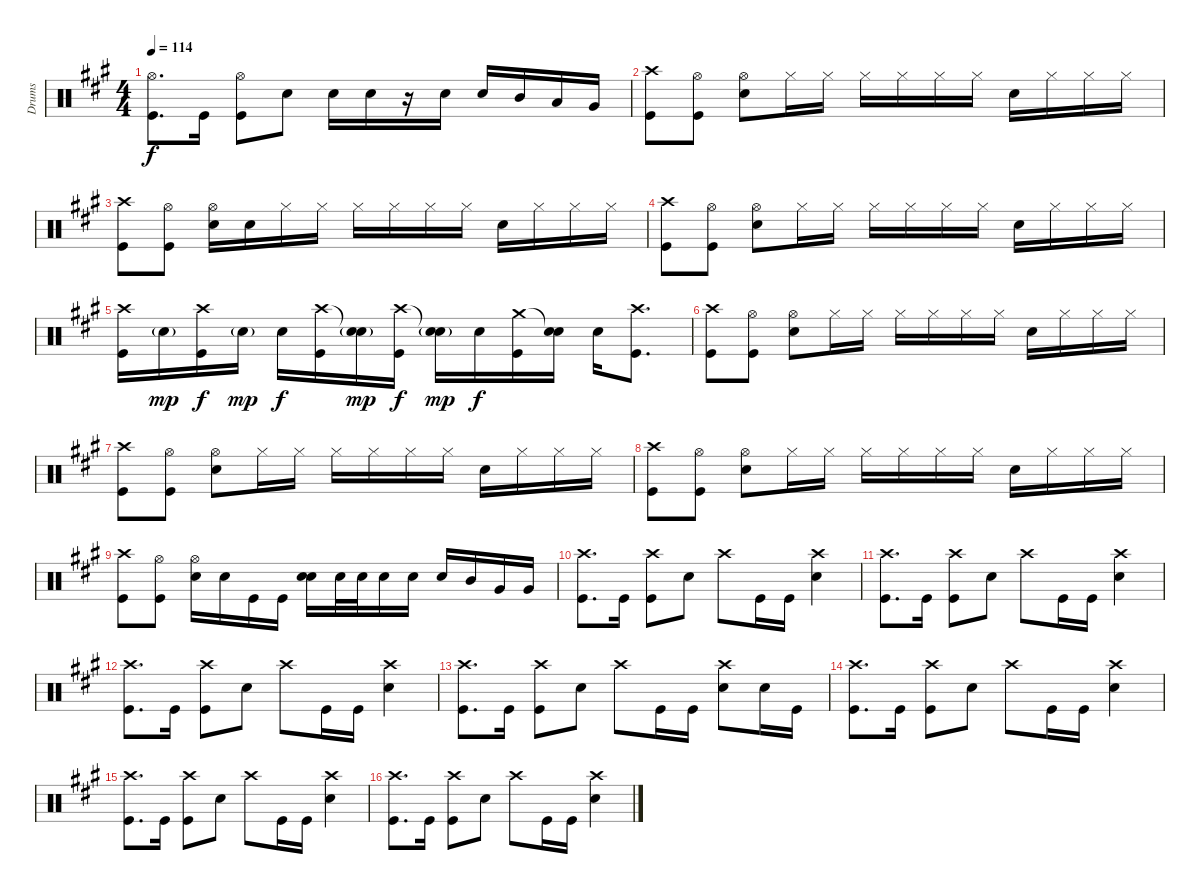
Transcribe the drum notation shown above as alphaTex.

\track ("Drums" "Drums") {instrument percussion}
\staff {score}
\articulation defaults
\ts (4 4)
\tempo 114
\clef neutral
\ks a
("Hi-Hat (open)" "Kick (hit)").8{d dy f} "Kick (hit)".16 ("Hi-Hat (open)" "Kick (hit)").8 "Electric Snare (hit)".8 "Electric Snare (hit)".16 "Electric Snare (hit)".16 r.16 "Electric Snare (hit)".16 "Electric Snare (hit)".16 "Mid Tom (hit)".16 "Low Tom (hit)".16 "Very Low Tom (hit)".16 |
("Crash high (hit)" "Kick (hit)").8 ("Hi-Hat (open)" "Kick (hit)").8 ("Hi-Hat (open)" "Electric Snare (hit)").8 "Hi-Hat (closed)".16 "Hi-Hat (closed)".16 "Hi-Hat (closed)".16 "Hi-Hat (closed)".16 "Hi-Hat (closed)".16 "Hi-Hat (closed)".16 "Electric Snare (hit)".16 "Hi-Hat (closed)".16 "Hi-Hat (closed)".16 "Hi-Hat (closed)".16 |
("Crash high (hit)" "Kick (hit)").8 ("Hi-Hat (open)" "Kick (hit)").8 ("Hi-Hat (open)" "Electric Snare (hit)").16 "Electric Snare (hit)".16 "Hi-Hat (closed)".16 "Hi-Hat (closed)".16 "Hi-Hat (closed)".16 "Hi-Hat (closed)".16 "Hi-Hat (closed)".16 "Hi-Hat (closed)".16 "Electric Snare (hit)".16 "Hi-Hat (closed)".16 "Hi-Hat (closed)".16 "Hi-Hat (closed)".16 |
("Crash high (hit)" "Kick (hit)").8 ("Hi-Hat (open)" "Kick (hit)").8 ("Hi-Hat (open)" "Electric Snare (hit)").8 "Hi-Hat (closed)".16 "Hi-Hat (closed)".16 "Hi-Hat (closed)".16 "Hi-Hat (closed)".16 "Hi-Hat (closed)".16 "Hi-Hat (closed)".16 "Electric Snare (hit)".16 "Hi-Hat (closed)".16 "Hi-Hat (closed)".16 "Hi-Hat (closed)".16 |
("Crash high (hit)" "Kick (hit)").16 "Electric Snare (hit)"{g}.16{dy mp} ("Crash high (hit)" "Kick (hit)").16{dy f} "Electric Snare (hit)"{g}.16{dy mp} "Electric Snare (hit)".16{dy f} ("Crash high (hit)" "Kick (hit)").16 ("Snare (hit)"{t} "Electric Snare (hit)"{g}).16{dy mp} ("Crash high (hit)" "Kick (hit)").16{dy f} ("Snare (hit)"{t} "Electric Snare (hit)"{g}).16{dy mp} "Electric Snare (hit)".16{dy f} ("Crash medium (hit)" "Kick (hit)").16 ("Snare (hit)"{t} "Electric Snare (hit)").16 "Electric Snare (hit)".16 ("Crash high (hit)" "Kick (hit)").8{d} |
("Crash high (hit)" "Kick (hit)").8 ("Hi-Hat (open)" "Kick (hit)").8 ("Hi-Hat (open)" "Electric Snare (hit)").8 "Hi-Hat (closed)".16 "Hi-Hat (closed)".16 "Hi-Hat (closed)".16 "Hi-Hat (closed)".16 "Hi-Hat (closed)".16 "Hi-Hat (closed)".16 "Electric Snare (hit)".16 "Hi-Hat (closed)".16 "Hi-Hat (closed)".16 "Hi-Hat (closed)".16 |
("Crash high (hit)" "Kick (hit)").8 ("Hi-Hat (open)" "Kick (hit)").8 ("Hi-Hat (open)" "Electric Snare (hit)").8 "Hi-Hat (closed)".16 "Hi-Hat (closed)".16 "Hi-Hat (closed)".16 "Hi-Hat (closed)".16 "Hi-Hat (closed)".16 "Hi-Hat (closed)".16 "Electric Snare (hit)".16 "Hi-Hat (closed)".16 "Hi-Hat (closed)".16 "Hi-Hat (closed)".16 |
("Crash high (hit)" "Kick (hit)").8 ("Hi-Hat (open)" "Kick (hit)").8 ("Hi-Hat (open)" "Electric Snare (hit)").8 "Hi-Hat (closed)".16 "Hi-Hat (closed)".16 "Hi-Hat (closed)".16 "Hi-Hat (closed)".16 "Hi-Hat (closed)".16 "Hi-Hat (closed)".16 "Electric Snare (hit)".16 "Hi-Hat (closed)".16 "Hi-Hat (closed)".16 "Hi-Hat (closed)".16 |
("Crash high (hit)" "Kick (hit)").8 ("Hi-Hat (open)" "Kick (hit)").8 ("Hi-Hat (open)" "Electric Snare (hit)").16 "Electric Snare (hit)".16 "Kick (hit)".16 "Kick (hit)".16 ("Electric Snare (hit)" "Electric Snare (hit)").16{bd 240} "Electric Snare (hit)".32 "Electric Snare (hit)".32 "Electric Snare (hit)".16 "Electric Snare (hit)".16 "Electric Snare (hit)".16 "Mid Tom (hit)".16 "Very Low Tom (hit)".16 "Very Low Tom (hit)".16 |
("Crash high (hit)" "Kick (hit)").8{d} "Kick (hit)".16 ("Crash high (hit)" "Kick (hit)").8 "Electric Snare (hit)".8 "Crash high (hit)".8 "Kick (hit)".16 "Kick (hit)".16 ("Crash high (hit)" "Electric Snare (hit)").4 |
("Crash high (hit)" "Kick (hit)").8{d} "Kick (hit)".16 ("Crash high (hit)" "Kick (hit)").8 "Electric Snare (hit)".8 "Crash high (hit)".8 "Kick (hit)".16 "Kick (hit)".16 ("Crash high (hit)" "Electric Snare (hit)").4 |
("Crash high (hit)" "Kick (hit)").8{d} "Kick (hit)".16 ("Crash high (hit)" "Kick (hit)").8 "Electric Snare (hit)".8 "Crash high (hit)".8 "Kick (hit)".16 "Kick (hit)".16 ("Crash high (hit)" "Electric Snare (hit)").4 |
("Crash high (hit)" "Kick (hit)").8{d} "Kick (hit)".16 ("Crash high (hit)" "Kick (hit)").8 "Electric Snare (hit)".8 "Crash high (hit)".8 "Kick (hit)".16 "Kick (hit)".16 ("Crash high (hit)" "Electric Snare (hit)").8 "Electric Snare (hit)".16 "Kick (hit)".16 |
("Crash high (hit)" "Kick (hit)").8{d} "Kick (hit)".16 ("Crash high (hit)" "Kick (hit)").8 "Electric Snare (hit)".8 "Crash high (hit)".8 "Kick (hit)".16 "Kick (hit)".16 ("Crash high (hit)" "Electric Snare (hit)").4 |
("Crash high (hit)" "Kick (hit)").8{d} "Kick (hit)".16 ("Crash high (hit)" "Kick (hit)").8 "Electric Snare (hit)".8 "Crash high (hit)".8 "Kick (hit)".16 "Kick (hit)".16 ("Crash high (hit)" "Electric Snare (hit)").4 |
("Crash high (hit)" "Kick (hit)").8{d} "Kick (hit)".16 ("Crash high (hit)" "Kick (hit)").8 "Electric Snare (hit)".8 "Crash high (hit)".8 "Kick (hit)".16 "Kick (hit)".16 ("Crash high (hit)" "Electric Snare (hit)").4
